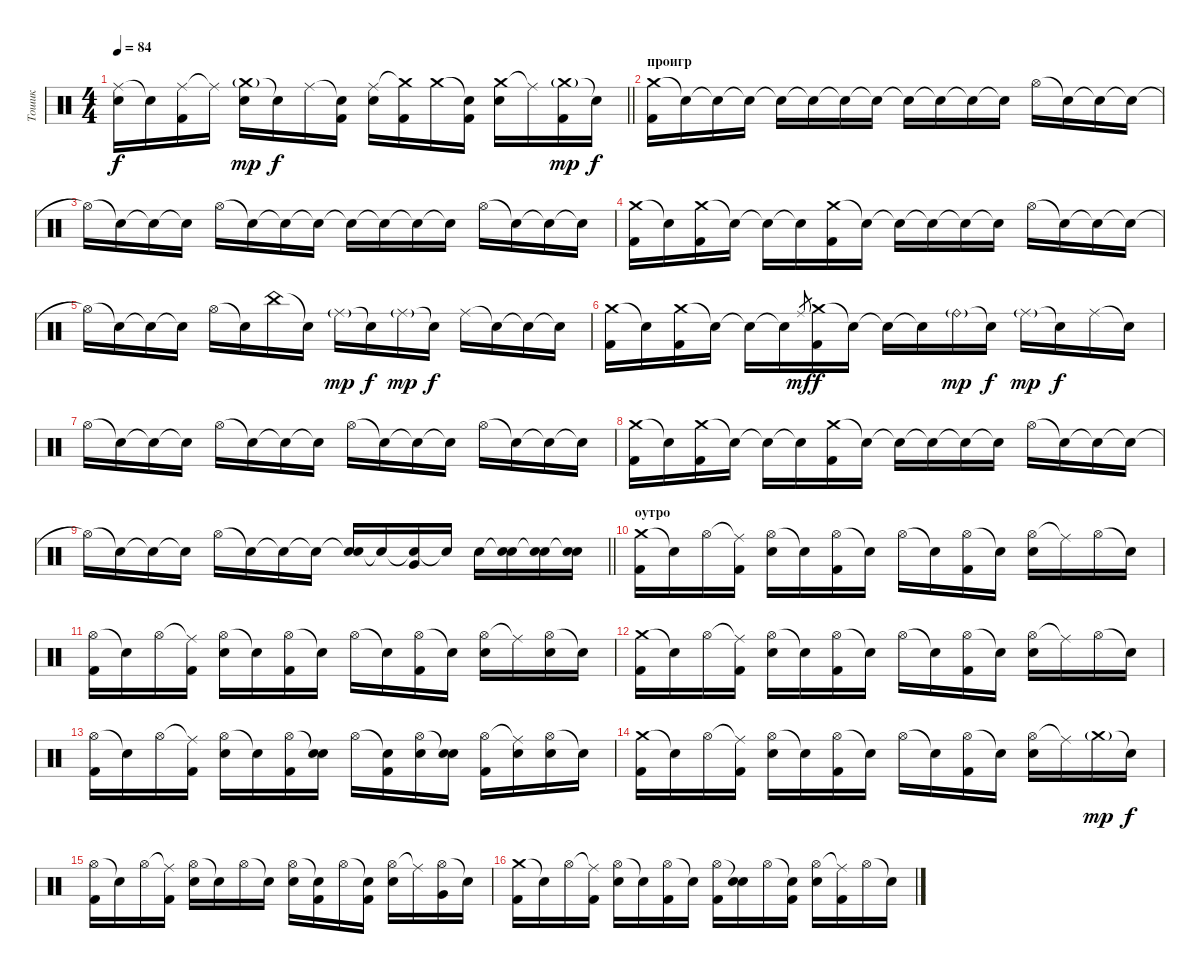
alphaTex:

\track ("Тошик" "Тошик") {instrument percussion}
\staff {score}
\articulation defaults
\ts (4 4)
\tempo 84
\clef neutral
\barLineRight lightlight
\ks c
("Ride (middle)" "Snare (hit) 2").16{dy f} "Snare (hit)"{t}.16 ("Ride (middle)" "Kick (hit) 2").16 "Ride (middle)"{t}.16 ("Crash medium (hit)"{g} "Snare (hit) 2").16{dy mp} "Snare (hit)"{t}.16{dy f} "Ride (middle)".16 ("Snare (hit)"{t} "Kick (hit) 2").16 ("Ride (middle)" "Snare (hit) 2").16 ("Crash medium (hit)"{t} "Kick (hit) 2").16 "Crash medium (hit)".16 ("Snare (hit)"{t} "Kick (hit) 2").16 ("Crash medium (hit)" "Snare (hit) 2").16 "Ride (middle)"{t}.16 ("Crash medium (hit)"{g} "Kick (hit) 2").16{dy mp} "Snare (hit)"{t}.16{dy f} |
\section ("" "проигр")
("Crash medium (hit)" "Kick (hit) 2").16 "Snare (hit)"{t}.16 "Snare (hit)"{t}.16 "Snare (hit)"{t}.16 "Snare (hit)"{t}.16 "Snare (hit)"{t}.16 "Snare (hit)"{t}.16 "Snare (hit)"{t}.16 "Snare (hit)"{t}.16 "Snare (hit)"{t}.16 "Snare (hit)"{t}.16 "Snare (hit)"{t}.16 "Hi-Hat (open)".16 "Snare (hit)"{t}.16 "Snare (hit)"{t}.16 "Snare (hit)"{t}.16 |
"Hi-Hat (open)"{t}.16 "Snare (hit)"{t}.16 "Snare (hit)"{t}.16 "Snare (hit)"{t}.16 "Hi-Hat (open)".16 "Snare (hit)"{t}.16 "Snare (hit)"{t}.16 "Snare (hit)"{t}.16 "Snare (hit)"{t}.16 "Snare (hit)"{t}.16 "Snare (hit)"{t}.16 "Snare (hit)"{t}.16 "Hi-Hat (open)".16 "Snare (hit)"{t}.16 "Snare (hit)"{t}.16 "Snare (hit)"{t}.16 |
("Crash medium (hit)" "Kick (hit) 2").16 "Snare (hit)"{t}.16 ("Crash medium (hit)" "Kick (hit) 2").16 "Snare (hit)"{t}.16 "Snare (hit)"{t}.16 "Snare (hit)"{t}.16 ("Crash medium (hit)" "Kick (hit) 2").16 "Snare (hit)"{t}.16 "Snare (hit)"{t}.16 "Snare (hit)"{t}.16 "Snare (hit)"{t}.16 "Snare (hit)"{t}.16 "Hi-Hat (open)".16 "Snare (hit)"{t}.16 "Snare (hit)"{t}.16 "Snare (hit)"{t}.16 |
"Hi-Hat (open)"{t}.16 "Snare (hit)"{t}.16 "Snare (hit)"{t}.16 "Snare (hit)"{t}.16 "Hi-Hat (open)".16 "Snare (hit)"{t}.16 "China (hit)".16 "Snare (hit)"{t}.16 "Ride (middle)"{g}.16{dy mp} "Snare (hit)"{t}.16{dy f} "Ride (middle)"{g}.16{dy mp} "Snare (hit)"{t}.16{dy f} "Ride (middle)".16 "Snare (hit)"{t}.16 "Snare (hit)"{t}.16 "Snare (hit)"{t}.16 |
("Crash medium (hit)" "Kick (hit) 2").16 "Snare (hit)"{t}.16 ("Crash medium (hit)" "Kick (hit) 2").16 "Snare (hit)"{t}.16 "Snare (hit)"{t}.16 "Snare (hit)"{t}.16 "Ride (middle)".8{gr dy mf} ("Crash medium (hit)" "Kick (hit) 2").16{dy f} "Snare (hit)"{t}.16 "Snare (hit)"{t}.16 "Snare (hit)"{t}.16 "Ride (bell)"{g}.16{dy mp} "Snare (hit)"{t}.16{dy f} "Ride (middle)"{g}.16{dy mp} "Snare (hit)"{t}.16{dy f} "Ride (middle)".16 "Snare (hit)"{t}.16 |
"Hi-Hat (open)".16 "Snare (hit)"{t}.16 "Snare (hit)"{t}.16 "Snare (hit)"{t}.16 "Hi-Hat (open)".16 "Snare (hit)"{t}.16 "Snare (hit)"{t}.16 "Snare (hit)"{t}.16 "Hi-Hat (open)".16 "Snare (hit)"{t}.16 "Snare (hit)"{t}.16 "Snare (hit)"{t}.16 "Hi-Hat (open)".16 "Snare (hit)"{t}.16 "Snare (hit)"{t}.16 "Snare (hit)"{t}.16 |
("Crash medium (hit)" "Kick (hit) 2").16 "Snare (hit)"{t}.16 ("Crash medium (hit)" "Kick (hit) 2").16 "Snare (hit)"{t}.16 "Snare (hit)"{t}.16 "Snare (hit)"{t}.16 ("Crash medium (hit)" "Kick (hit) 2").16 "Snare (hit)"{t}.16 "Snare (hit)"{t}.16 "Snare (hit)"{t}.16 "Snare (hit)"{t}.16 "Snare (hit)"{t}.16 "Hi-Hat (open)".16 "Snare (hit)"{t}.16 "Snare (hit)"{t}.16 "Snare (hit)"{t}.16 |
\barLineRight lightlight "Hi-Hat (open)"{t}.16 "Snare (hit)"{t}.16 "Snare (hit)"{t}.16 "Snare (hit)"{t}.16 "Hi-Hat (open)".16 "Snare (hit)"{t}.16 "Snare (hit)"{t}.16 "Snare (hit)"{t}.16
("Snare (hit)"{t} "Snare (hit) 2").16 "Snare (hit)"{t}.16 ("Snare (hit)"{t} "Very Low Tom (hit)").16 "Snare (hit)"{t}.16 "Snare (hit) 2".16 ("Snare (hit)"{t} "Snare (hit) 2").16 ("Snare (hit)"{t} "Snare (hit) 2").16 ("Snare (hit)"{t} "Snare (hit) 2").16 |
\section ("" "оутро")
("Crash medium (hit)" "Kick (hit) 2").16 "Snare (hit)"{t}.16 "Hi-Hat (open)".16 ("Ride (middle)"{t} "Kick (hit) 2").16 ("Hi-Hat (open)" "Snare (hit) 2").16 "Snare (hit)"{t}.16 ("Hi-Hat (open)" "Kick (hit) 2").16 "Snare (hit)"{t}.16 "Hi-Hat (open)".16 "Snare (hit)"{t}.16 ("Hi-Hat (open)" "Kick (hit) 2").16 "Snare (hit)"{t}.16 ("Hi-Hat (open)" "Snare (hit) 2").16 "Ride (middle)"{t}.16 "Hi-Hat (open)".16 "Snare (hit)"{t}.16 |
("Hi-Hat (open)" "Kick (hit) 2").16 "Snare (hit)"{t}.16 "Hi-Hat (open)".16 ("Ride (middle)"{t} "Kick (hit) 2").16 ("Hi-Hat (open)" "Snare (hit) 2").16 "Snare (hit)"{t}.16 ("Hi-Hat (open)" "Kick (hit) 2").16 "Snare (hit)"{t}.16 "Hi-Hat (open)".16 "Snare (hit)"{t}.16 ("Hi-Hat (open)" "Kick (hit) 2").16 "Snare (hit)"{t}.16 ("Hi-Hat (open)" "Snare (hit) 2").16 "Ride (middle)"{t}.16 ("Hi-Hat (open)" "Snare (hit) 2").16 "Snare (hit)"{t}.16 |
("Crash medium (hit)" "Kick (hit) 2").16 "Snare (hit)"{t}.16 "Hi-Hat (open)".16 ("Ride (middle)"{t} "Kick (hit) 2").16 ("Hi-Hat (open)" "Snare (hit) 2").16 "Snare (hit)"{t}.16 ("Hi-Hat (open)" "Kick (hit) 2").16 "Snare (hit)"{t}.16 "Hi-Hat (open)".16 "Snare (hit)"{t}.16 ("Hi-Hat (open)" "Kick (hit) 2").16 "Snare (hit)"{t}.16 ("Hi-Hat (open)" "Snare (hit) 2").16 "Ride (middle)"{t}.16 "Hi-Hat (open)".16 "Snare (hit)"{t}.16 |
("Hi-Hat (open)" "Kick (hit) 2").16 "Snare (hit)"{t}.16 "Hi-Hat (open)".16 ("Ride (middle)"{t} "Kick (hit) 2").16 ("Hi-Hat (open)" "Snare (hit) 2").16 "Snare (hit)"{t}.16 ("Hi-Hat (open)" "Kick (hit) 2").16 ("Snare (hit)"{t} "Snare (hit) 2").16 "Hi-Hat (open)".16 ("Snare (hit)"{t} "Kick (hit) 2").16 ("Hi-Hat (open)" "Snare (hit) 2").16 ("Snare (hit)"{t} "Snare (hit) 2").16 ("Hi-Hat (open)" "Kick (hit) 2").16 ("Ride (middle)"{t} "Snare (hit) 2").16 ("Hi-Hat (open)" "Snare (hit) 2").16 "Snare (hit)"{t}.16 |
("Crash medium (hit)" "Kick (hit) 2").16 "Snare (hit)"{t}.16 "Hi-Hat (open)".16 ("Ride (middle)"{t} "Kick (hit) 2").16 ("Hi-Hat (open)" "Snare (hit) 2").16 "Snare (hit)"{t}.16 ("Hi-Hat (open)" "Kick (hit) 2").16 "Snare (hit)"{t}.16 "Hi-Hat (open)".16 "Snare (hit)"{t}.16 ("Hi-Hat (open)" "Kick (hit) 2").16 "Snare (hit)"{t}.16 ("Hi-Hat (open)" "Snare (hit) 2").16 "Ride (middle)"{t}.16 "Crash medium (hit)"{g}.16{dy mp} "Snare (hit)"{t}.16{dy f} |
("Hi-Hat (open)" "Kick (hit) 2").16 "Snare (hit)"{t}.16 "Hi-Hat (open)".16 ("Ride (middle)"{t} "Kick (hit) 2").16 ("Hi-Hat (open)" "Snare (hit) 2").16 "Snare (hit)"{t}.16 "Hi-Hat (open)".16 "Snare (hit)"{t}.16 ("Hi-Hat (open)" "Snare (hit) 2").16 ("Snare (hit)"{t} "Kick (hit) 2").16 "Hi-Hat (open)".16 ("Snare (hit)"{t} "Kick (hit) 2").16 ("Hi-Hat (open)" "Snare (hit) 2").16 "Ride (middle)"{t}.16 ("Hi-Hat (open)" "Very Low Tom (hit)").16 "Snare (hit)"{t}.16 |
("Crash medium (hit)" "Kick (hit) 2").16 "Snare (hit)"{t}.16 "Hi-Hat (open)".16 ("Ride (middle)"{t} "Kick (hit) 2").16 ("Hi-Hat (open)" "Snare (hit) 2").16 "Snare (hit)"{t}.16 ("Hi-Hat (open)" "Kick (hit) 2").16 "Snare (hit)"{t}.16 ("Hi-Hat (open)" "Kick (hit) 2").16 ("Snare (hit)"{t} "Snare (hit) 2").16 "Hi-Hat (open)".16 ("Snare (hit)"{t} "Kick (hit) 2").16 ("Hi-Hat (open)" "Snare (hit) 2").16 ("Ride (middle)"{t} "Kick (hit) 2").16 "Hi-Hat (open)".16 "Snare (hit)"{t}.16
